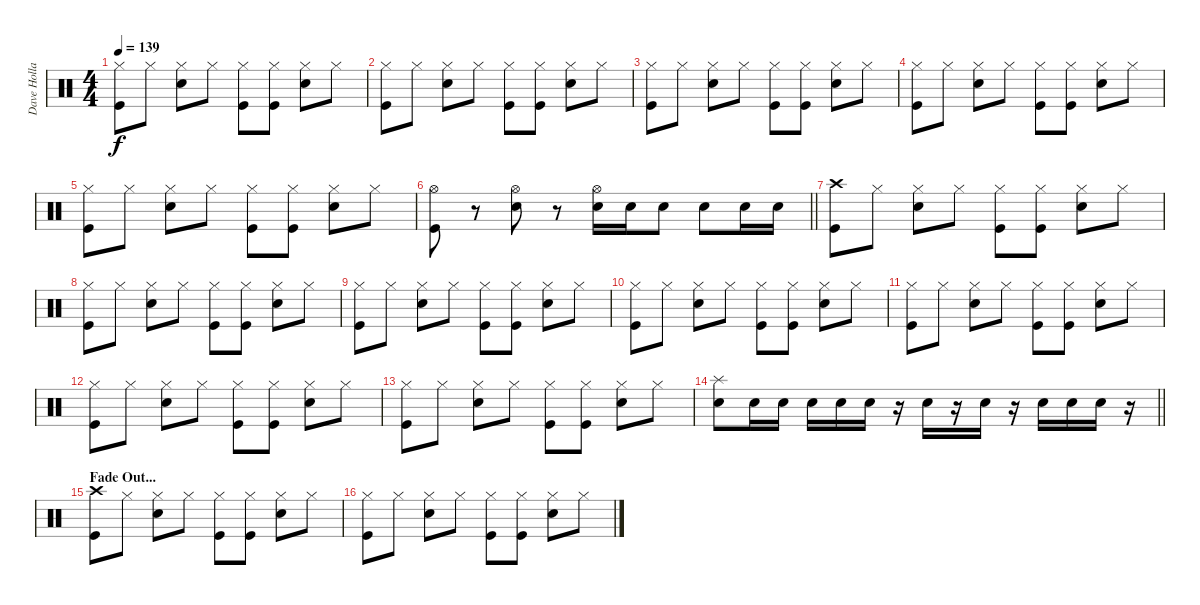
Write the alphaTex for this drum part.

\track ("Dave Holland" "Dave Holla") {instrument percussion}
\staff {score}
\articulation defaults
\ts (4 4)
\tempo 139
\clef neutral
\ks c
("Hi-Hat (closed)" "Kick (hit)").8{dy f} "Hi-Hat (closed)".8 ("Hi-Hat (closed)" "Electric Snare (hit)").8 "Hi-Hat (closed)".8 ("Hi-Hat (closed)" "Kick (hit)").8 ("Hi-Hat (closed)" "Kick (hit)").8 ("Hi-Hat (closed)" "Electric Snare (hit)").8 "Hi-Hat (closed)".8 |
("Hi-Hat (closed)" "Kick (hit)").8 "Hi-Hat (closed)".8 ("Hi-Hat (closed)" "Electric Snare (hit)").8 "Hi-Hat (closed)".8 ("Hi-Hat (closed)" "Kick (hit)").8 ("Hi-Hat (closed)" "Kick (hit)").8 ("Hi-Hat (closed)" "Electric Snare (hit)").8 "Hi-Hat (closed)".8 |
("Hi-Hat (closed)" "Kick (hit)").8 "Hi-Hat (closed)".8 ("Hi-Hat (closed)" "Electric Snare (hit)").8 "Hi-Hat (closed)".8 ("Hi-Hat (closed)" "Kick (hit)").8 ("Hi-Hat (closed)" "Kick (hit)").8 ("Hi-Hat (closed)" "Electric Snare (hit)").8 "Hi-Hat (closed)".8 |
("Hi-Hat (closed)" "Kick (hit)").8 "Hi-Hat (closed)".8 ("Hi-Hat (closed)" "Electric Snare (hit)").8 "Hi-Hat (closed)".8 ("Hi-Hat (closed)" "Kick (hit)").8 ("Hi-Hat (closed)" "Kick (hit)").8 ("Hi-Hat (closed)" "Electric Snare (hit)").8 "Hi-Hat (closed)".8 |
("Hi-Hat (closed)" "Kick (hit)").8 "Hi-Hat (closed)".8 ("Hi-Hat (closed)" "Electric Snare (hit)").8 "Hi-Hat (closed)".8 ("Hi-Hat (closed)" "Kick (hit)").8 ("Hi-Hat (closed)" "Kick (hit)").8 ("Hi-Hat (closed)" "Electric Snare (hit)").8 "Hi-Hat (closed)".8 |
\barLineRight lightlight
("Hi-Hat (open)" "Kick (hit)").8 r.8 ("Hi-Hat (open)" "Electric Snare (hit)").8 r.8 ("Hi-Hat (open)" "Electric Snare (hit)").16 "Electric Snare (hit)".16 "Electric Snare (hit)".8 "Electric Snare (hit)".8 "Electric Snare (hit)".16 "Electric Snare (hit)".16 |
("Crash high (hit)" "Kick (hit)").8 "Hi-Hat (closed)".8 ("Hi-Hat (closed)" "Electric Snare (hit)").8 "Hi-Hat (closed)".8 ("Hi-Hat (closed)" "Kick (hit)").8 ("Hi-Hat (closed)" "Kick (hit)").8 ("Hi-Hat (closed)" "Electric Snare (hit)").8 "Hi-Hat (closed)".8 |
("Hi-Hat (closed)" "Kick (hit)").8 "Hi-Hat (closed)".8 ("Hi-Hat (closed)" "Electric Snare (hit)").8 "Hi-Hat (closed)".8 ("Hi-Hat (closed)" "Kick (hit)").8 ("Hi-Hat (closed)" "Kick (hit)").8 ("Hi-Hat (closed)" "Electric Snare (hit)").8 "Hi-Hat (closed)".8 |
("Hi-Hat (closed)" "Kick (hit)").8 "Hi-Hat (closed)".8 ("Hi-Hat (closed)" "Electric Snare (hit)").8 "Hi-Hat (closed)".8 ("Hi-Hat (closed)" "Kick (hit)").8 ("Hi-Hat (closed)" "Kick (hit)").8 ("Hi-Hat (closed)" "Electric Snare (hit)").8 "Hi-Hat (closed)".8 |
("Hi-Hat (closed)" "Kick (hit)").8 "Hi-Hat (closed)".8 ("Hi-Hat (closed)" "Electric Snare (hit)").8 "Hi-Hat (closed)".8 ("Hi-Hat (closed)" "Kick (hit)").8 ("Hi-Hat (closed)" "Kick (hit)").8 ("Hi-Hat (closed)" "Electric Snare (hit)").8 "Hi-Hat (closed)".8 |
("Hi-Hat (closed)" "Kick (hit)").8 "Hi-Hat (closed)".8 ("Hi-Hat (closed)" "Electric Snare (hit)").8 "Hi-Hat (closed)".8 ("Hi-Hat (closed)" "Kick (hit)").8 ("Hi-Hat (closed)" "Kick (hit)").8 ("Hi-Hat (closed)" "Electric Snare (hit)").8 "Hi-Hat (closed)".8 |
("Hi-Hat (closed)" "Kick (hit)").8 "Hi-Hat (closed)".8 ("Hi-Hat (closed)" "Electric Snare (hit)").8 "Hi-Hat (closed)".8 ("Hi-Hat (closed)" "Kick (hit)").8 ("Hi-Hat (closed)" "Kick (hit)").8 ("Hi-Hat (closed)" "Electric Snare (hit)").8 "Hi-Hat (closed)".8 |
("Hi-Hat (closed)" "Kick (hit)").8 "Hi-Hat (closed)".8 ("Hi-Hat (closed)" "Electric Snare (hit)").8 "Hi-Hat (closed)".8 ("Hi-Hat (closed)" "Kick (hit)").8 ("Hi-Hat (closed)" "Kick (hit)").8 ("Hi-Hat (closed)" "Electric Snare (hit)").8 "Hi-Hat (closed)".8 |
\barLineRight lightlight
("Splash (hit)" "Electric Snare (hit)").8 "Electric Snare (hit)".16 "Electric Snare (hit)".16 "Electric Snare (hit)".16 "Electric Snare (hit)".16 "Electric Snare (hit)".16 r.16 "Electric Snare (hit)".16 r.16 "Electric Snare (hit)".16 r.16 "Electric Snare (hit)".16 "Electric Snare (hit)".16 "Electric Snare (hit)".16 r.16 |
\section ("" "Fade Out...")
("Crash high (hit)" "Kick (hit)").8 "Hi-Hat (closed)".8 ("Hi-Hat (closed)" "Electric Snare (hit)").8 "Hi-Hat (closed)".8 ("Hi-Hat (closed)" "Kick (hit)").8 ("Hi-Hat (closed)" "Kick (hit)").8 ("Hi-Hat (closed)" "Electric Snare (hit)").8 "Hi-Hat (closed)".8 |
("Hi-Hat (closed)" "Kick (hit)").8 "Hi-Hat (closed)".8 ("Hi-Hat (closed)" "Electric Snare (hit)").8 "Hi-Hat (closed)".8 ("Hi-Hat (closed)" "Kick (hit)").8 ("Hi-Hat (closed)" "Kick (hit)").8 ("Hi-Hat (closed)" "Electric Snare (hit)").8 "Hi-Hat (closed)".8
